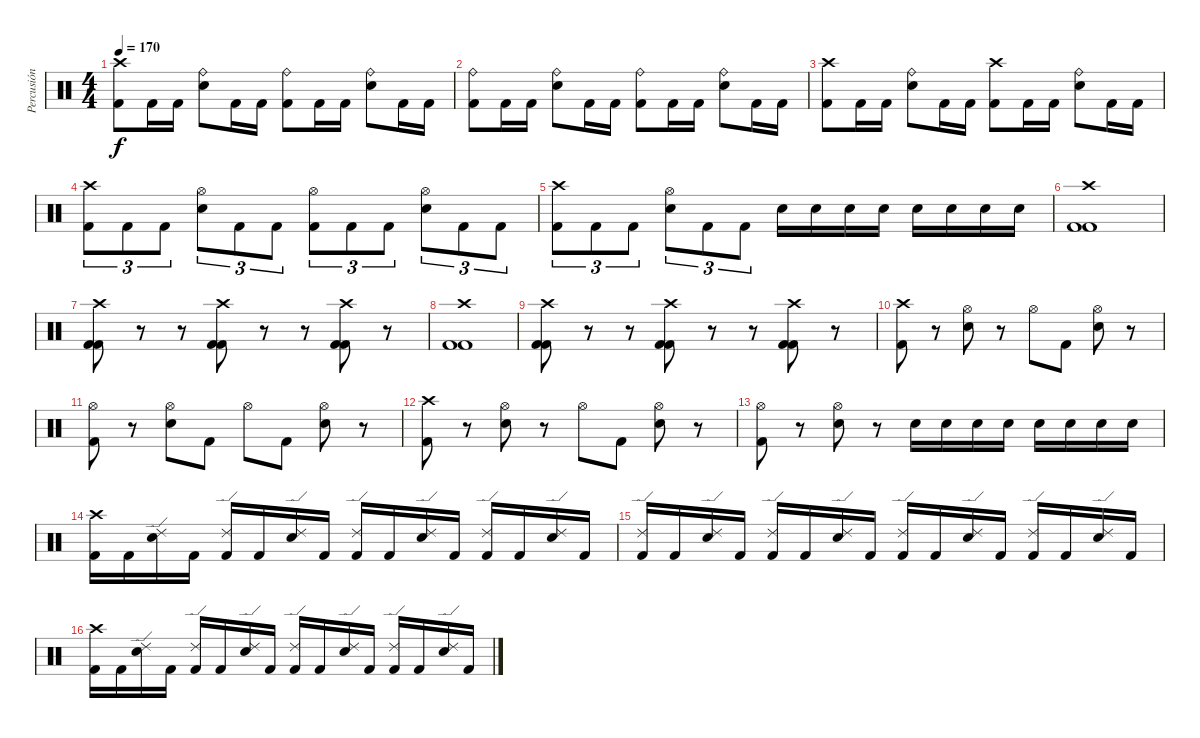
\track ("Percusión" "Percusión") {instrument percussion}
\staff {score}
\articulation defaults
\ts (4 4)
\tempo 170
\clef neutral
\ks c
("Crash high (hit)" "Kick (hit) 2").8{dy f} "Kick (hit) 2".16 "Kick (hit) 2".16 ("Ride (bell)" "Electric Snare (hit)").8 "Kick (hit) 2".16 "Kick (hit) 2".16 ("Ride (bell)" "Kick (hit) 2").8 "Kick (hit) 2".16 "Kick (hit) 2".16 ("Ride (bell)" "Electric Snare (hit)").8 "Kick (hit) 2".16 "Kick (hit) 2".16 |
("Ride (bell)" "Kick (hit) 2").8 "Kick (hit) 2".16 "Kick (hit) 2".16 ("Ride (bell)" "Electric Snare (hit)").8 "Kick (hit) 2".16 "Kick (hit) 2".16 ("Ride (bell)" "Kick (hit) 2").8 "Kick (hit) 2".16 "Kick (hit) 2".16 ("Ride (bell)" "Electric Snare (hit)").8 "Kick (hit) 2".16 "Kick (hit) 2".16 |
("Crash high (hit)" "Kick (hit) 2").8 "Kick (hit) 2".16 "Kick (hit) 2".16 ("Ride (bell)" "Electric Snare (hit)").8 "Kick (hit) 2".16 "Kick (hit) 2".16 ("Crash high (hit)" "Kick (hit) 2").8 "Kick (hit) 2".16 "Kick (hit) 2".16 ("Ride (bell)" "Electric Snare (hit)").8 "Kick (hit) 2".16 "Kick (hit) 2".16 |
("Crash high (hit)" "Kick (hit) 2").8{tu (3 2)} "Kick (hit) 2".8{tu (3 2)} "Kick (hit) 2".8{tu (3 2)} ("Hi-Hat (open)" "Electric Snare (hit)").8{tu (3 2)} "Kick (hit) 2".8{tu (3 2)} "Kick (hit) 2".8{tu (3 2)} ("Hi-Hat (open)" "Kick (hit) 2").8{tu (3 2)} "Kick (hit) 2".8{tu (3 2)} "Kick (hit) 2".8{tu (3 2)} ("Hi-Hat (open)" "Electric Snare (hit)").8{tu (3 2)} "Kick (hit) 2".8{tu (3 2)} "Kick (hit) 2".8{tu (3 2)} |
("Crash high (hit)" "Kick (hit) 2").8{tu (3 2)} "Kick (hit) 2".8{tu (3 2)} "Kick (hit) 2".8{tu (3 2)} ("Hi-Hat (open)" "Electric Snare (hit)").8{tu (3 2)} "Kick (hit) 2".8{tu (3 2)} "Kick (hit) 2".8{tu (3 2)} "Electric Snare (hit)".16 "Electric Snare (hit)".16 "Electric Snare (hit)".16 "Electric Snare (hit)".16 "Electric Snare (hit)".16 "Electric Snare (hit)".16 "Electric Snare (hit)".16 "Electric Snare (hit)".16 |
("Crash high (hit)" "Kick (hit) 2" "Kick (hit) 2").1 |
("Crash high (hit)" "Kick (hit) 2" "Kick (hit) 2").8 r.8 r.8 ("Crash high (hit)" "Kick (hit) 2" "Kick (hit) 2").8 r.8 r.8 ("Crash high (hit)" "Kick (hit) 2" "Kick (hit) 2").8 r.8 |
("Crash high (hit)" "Kick (hit) 2" "Kick (hit) 2").1 |
("Crash high (hit)" "Kick (hit) 2" "Kick (hit) 2").8 r.8 r.8 ("Crash high (hit)" "Kick (hit) 2" "Kick (hit) 2").8 r.8 r.8 ("Crash high (hit)" "Kick (hit) 2" "Kick (hit) 2").8 r.8 |
("Crash high (hit)" "Kick (hit) 2").8 r.8 ("Hi-Hat (open)" "Electric Snare (hit)").8 r.8 "Hi-Hat (open)".8 "Kick (hit) 2".8 ("Hi-Hat (open)" "Electric Snare (hit)").8 r.8 |
("Hi-Hat (open)" "Kick (hit) 2").8 r.8 ("Hi-Hat (open)" "Electric Snare (hit)").8 "Kick (hit) 2".8 "Hi-Hat (open)".8 "Kick (hit) 2".8 ("Hi-Hat (open)" "Electric Snare (hit)").8 r.8 |
("Crash high (hit)" "Kick (hit) 2").8 r.8 ("Hi-Hat (open)" "Electric Snare (hit)").8 r.8 "Hi-Hat (open)".8 "Kick (hit) 2".8 ("Hi-Hat (open)" "Electric Snare (hit)").8 r.8 |
("Hi-Hat (open)" "Kick (hit) 2").8 r.8 ("Hi-Hat (open)" "Electric Snare (hit)").8 r.8 "Electric Snare (hit)".16 "Electric Snare (hit)".16 "Electric Snare (hit)".16 "Electric Snare (hit)".16 "Electric Snare (hit)".16 "Electric Snare (hit)".16 "Electric Snare (hit)".16 "Electric Snare (hit)".16 |
("Crash high (hit)" "Kick (hit) 2").16 "Kick (hit) 2".16 ("Ride (edge) 2" "Electric Snare (hit)").16 "Kick (hit) 2".16 ("Ride (edge) 2" "Kick (hit) 2").16 "Kick (hit) 2".16 ("Ride (edge) 2" "Electric Snare (hit)").16 "Kick (hit) 2".16 ("Ride (edge) 2" "Kick (hit) 2").16 "Kick (hit) 2".16 ("Ride (edge) 2" "Electric Snare (hit)").16 "Kick (hit) 2".16 ("Ride (edge) 2" "Kick (hit) 2").16 "Kick (hit) 2".16 ("Ride (edge) 2" "Electric Snare (hit)").16 "Kick (hit) 2".16 |
("Ride (edge) 2" "Kick (hit) 2").16 "Kick (hit) 2".16 ("Ride (edge) 2" "Electric Snare (hit)").16 "Kick (hit) 2".16 ("Ride (edge) 2" "Kick (hit) 2").16 "Kick (hit) 2".16 ("Ride (edge) 2" "Electric Snare (hit)").16 "Kick (hit) 2".16 ("Ride (edge) 2" "Kick (hit) 2").16 "Kick (hit) 2".16 ("Ride (edge) 2" "Electric Snare (hit)").16 "Kick (hit) 2".16 ("Ride (edge) 2" "Kick (hit) 2").16 "Kick (hit) 2".16 ("Ride (edge) 2" "Electric Snare (hit)").16 "Kick (hit) 2".16 |
("Crash high (hit)" "Kick (hit) 2").16 "Kick (hit) 2".16 ("Ride (edge) 2" "Electric Snare (hit)").16 "Kick (hit) 2".16 ("Ride (edge) 2" "Kick (hit) 2").16 "Kick (hit) 2".16 ("Ride (edge) 2" "Electric Snare (hit)").16 "Kick (hit) 2".16 ("Ride (edge) 2" "Kick (hit) 2").16 "Kick (hit) 2".16 ("Ride (edge) 2" "Electric Snare (hit)").16 "Kick (hit) 2".16 ("Ride (edge) 2" "Kick (hit) 2").16 "Kick (hit) 2".16 ("Ride (edge) 2" "Electric Snare (hit)").16 "Kick (hit) 2".16
